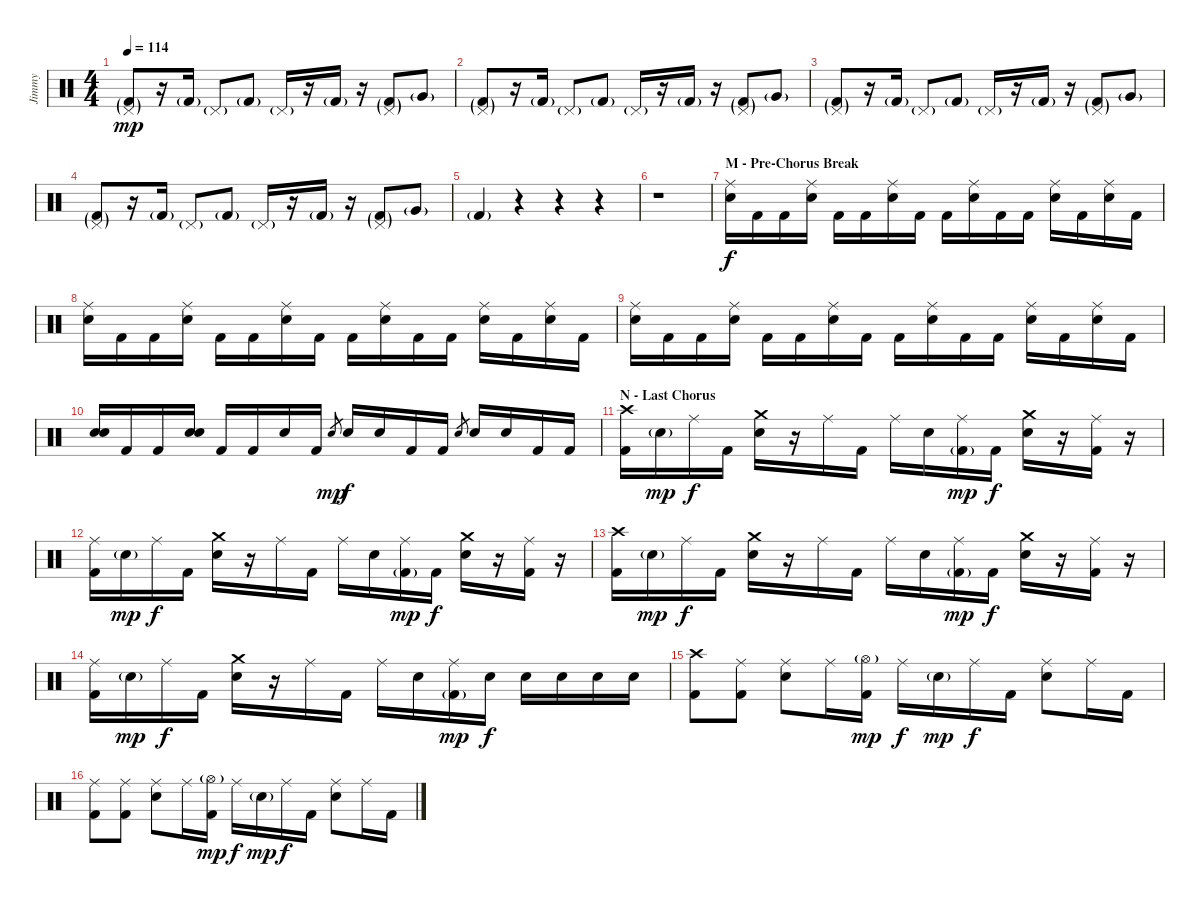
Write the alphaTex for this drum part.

\track ("Jimmy" "Jimmy") {instrument percussion}
\staff {score}
\articulation defaults
\ts (4 4)
\tempo 114
\clef neutral
\ks c
("Pedal Hi-Hat (hit)"{g} "Kick (hit) 2"{g}).8{dy mp} r.16 "Kick (hit) 2"{g}.16 "Pedal Hi-Hat (hit)"{g}.8 "Kick (hit) 2"{g}.8 "Pedal Hi-Hat (hit)"{g}.16 r.16 "Kick (hit) 2"{g}.16 r.16 ("Pedal Hi-Hat (hit)"{g} "Kick (hit) 2"{g}).8 "Very Low Tom (hit)"{g}.8 |
("Pedal Hi-Hat (hit)"{g} "Kick (hit) 2"{g}).8 r.16 "Kick (hit) 2"{g}.16 "Pedal Hi-Hat (hit)"{g}.8 "Kick (hit) 2"{g}.8 "Pedal Hi-Hat (hit)"{g}.16 r.16 "Kick (hit) 2"{g}.16 r.16 ("Pedal Hi-Hat (hit)"{g} "Kick (hit) 2"{g}).8 "Very Low Tom (hit)"{g}.8 |
("Pedal Hi-Hat (hit)"{g} "Kick (hit) 2"{g}).8 r.16 "Kick (hit) 2"{g}.16 "Pedal Hi-Hat (hit)"{g}.8 "Kick (hit) 2"{g}.8 "Pedal Hi-Hat (hit)"{g}.16 r.16 "Kick (hit) 2"{g}.16 r.16 ("Pedal Hi-Hat (hit)"{g} "Kick (hit) 2"{g}).8 "Very Low Tom (hit)"{g}.8 |
("Pedal Hi-Hat (hit)"{g} "Kick (hit) 2"{g}).8 r.16 "Kick (hit) 2"{g}.16 "Pedal Hi-Hat (hit)"{g}.8 "Kick (hit) 2"{g}.8 "Pedal Hi-Hat (hit)"{g}.16 r.16 "Kick (hit) 2"{g}.16 r.16 ("Pedal Hi-Hat (hit)"{g} "Kick (hit) 2"{g}).8 "Very Low Tom (hit)"{g}.8 |
"Kick (hit) 2"{g}.4 r.4 r.4 r.4 |
r.1 |
\section ("" "M - Pre-Chorus Break")
("Ride (middle)" "Electric Snare (hit)").16{dy f} "Kick (hit) 2".16 "Kick (hit) 2".16 ("Ride (middle)" "Electric Snare (hit)").16 "Kick (hit) 2".16 "Kick (hit) 2".16 ("Ride (middle)" "Electric Snare (hit)").16 "Kick (hit) 2".16 "Kick (hit) 2".16 ("Ride (middle)" "Electric Snare (hit)").16 "Kick (hit) 2".16 "Kick (hit) 2".16 ("Ride (middle)" "Electric Snare (hit)").16 "Kick (hit) 2".16 ("Ride (middle)" "Electric Snare (hit)").16 "Kick (hit) 2".16 |
("Ride (middle)" "Electric Snare (hit)").16 "Kick (hit) 2".16 "Kick (hit) 2".16 ("Ride (middle)" "Electric Snare (hit)").16 "Kick (hit) 2".16 "Kick (hit) 2".16 ("Ride (middle)" "Electric Snare (hit)").16 "Kick (hit) 2".16 "Kick (hit) 2".16 ("Ride (middle)" "Electric Snare (hit)").16 "Kick (hit) 2".16 "Kick (hit) 2".16 ("Ride (middle)" "Electric Snare (hit)").16 "Kick (hit) 2".16 ("Ride (middle)" "Electric Snare (hit)").16 "Kick (hit) 2".16 |
("Ride (middle)" "Electric Snare (hit)").16 "Kick (hit) 2".16 "Kick (hit) 2".16 ("Ride (middle)" "Electric Snare (hit)").16 "Kick (hit) 2".16 "Kick (hit) 2".16 ("Ride (middle)" "Electric Snare (hit)").16 "Kick (hit) 2".16 "Kick (hit) 2".16 ("Ride (middle)" "Electric Snare (hit)").16 "Kick (hit) 2".16 "Kick (hit) 2".16 ("Ride (middle)" "Electric Snare (hit)").16 "Kick (hit) 2".16 ("Ride (middle)" "Electric Snare (hit)").16 "Kick (hit) 2".16 |
("Electric Snare (hit)" "Electric Snare (hit)").16 "Kick (hit) 2".16 "Kick (hit) 2".16 ("Electric Snare (hit)" "Electric Snare (hit)").16 "Kick (hit) 2".16 "Kick (hit) 2".16 "Electric Snare (hit)".16 "Kick (hit) 2".16 "Electric Snare (hit)".8{gr dy mp} "Electric Snare (hit)".16{dy f} "Electric Snare (hit)".16 "Kick (hit) 2".16 "Kick (hit) 2".16 "Electric Snare (hit)".8{gr} "Electric Snare (hit)".16 "Electric Snare (hit)".16 "Kick (hit) 2".16 "Kick (hit) 2".16 |
\section ("" "N - Last Chorus")
("Crash high (hit)" "Kick (hit) 2").16 "Electric Snare (hit)"{g}.16{dy mp} "Ride (middle)".16{dy f} "Kick (hit) 2".16 ("Crash medium (hit)" "Electric Snare (hit)").16 r.16 "Ride (middle)".16 "Kick (hit) 2".16 "Ride (middle)".16 "Electric Snare (hit)".16 ("Ride (middle)" "Kick (hit) 2"{g}).16{dy mp} "Kick (hit) 2".16{dy f} ("Crash medium (hit)" "Electric Snare (hit)").16 r.16 ("Ride (middle)" "Kick (hit) 2").16 r.16 |
("Ride (middle)" "Kick (hit) 2").16 "Electric Snare (hit)"{g}.16{dy mp} "Ride (middle)".16{dy f} "Kick (hit) 2".16 ("Crash medium (hit)" "Electric Snare (hit)").16 r.16 "Ride (middle)".16 "Kick (hit) 2".16 "Ride (middle)".16 "Electric Snare (hit)".16 ("Ride (middle)" "Kick (hit) 2"{g}).16{dy mp} "Kick (hit) 2".16{dy f} ("Crash medium (hit)" "Electric Snare (hit)").16 r.16 ("Ride (middle)" "Kick (hit) 2").16 r.16 |
("Crash high (hit)" "Kick (hit) 2").16 "Electric Snare (hit)"{g}.16{dy mp} "Ride (middle)".16{dy f} "Kick (hit) 2".16 ("Crash medium (hit)" "Electric Snare (hit)").16 r.16 "Ride (middle)".16 "Kick (hit) 2".16 "Ride (middle)".16 "Electric Snare (hit)".16 ("Ride (middle)" "Kick (hit) 2"{g}).16{dy mp} "Kick (hit) 2".16{dy f} ("Crash medium (hit)" "Electric Snare (hit)").16 r.16 ("Ride (middle)" "Kick (hit) 2").16 r.16 |
("Ride (middle)" "Kick (hit) 2").16 "Electric Snare (hit)"{g}.16{dy mp} "Ride (middle)".16{dy f} "Kick (hit) 2".16 ("Crash medium (hit)" "Electric Snare (hit)").16 r.16 "Ride (middle)".16 "Kick (hit) 2".16 "Ride (middle)".16 "Electric Snare (hit)".16 ("Ride (middle)" "Kick (hit) 2"{g}).16{dy mp} "Electric Snare (hit)".16{dy f} "Electric Snare (hit)".16 "Electric Snare (hit)".16 "Electric Snare (hit)".16 "Electric Snare (hit)".16 |
("Crash high (hit)" "Kick (hit) 2").8 ("Ride (middle)" "Kick (hit) 2").8 ("Ride (middle)" "Electric Snare (hit)").8 "Ride (middle)".16 ("Hi-Hat (open)"{g} "Kick (hit) 2").16{dy mp} "Ride (middle)".16{dy f} "Electric Snare (hit)"{g}.16{dy mp} "Ride (middle)".16{dy f} "Kick (hit) 2".16 ("Ride (middle)" "Electric Snare (hit)").8 "Ride (middle)".16 "Kick (hit) 2".16 |
("Ride (middle)" "Kick (hit) 2").8 ("Ride (middle)" "Kick (hit) 2").8 ("Ride (middle)" "Electric Snare (hit)").8 "Ride (middle)".16 ("Hi-Hat (open)"{g} "Kick (hit) 2").16{dy mp} "Ride (middle)".16{dy f} "Electric Snare (hit)"{g}.16{dy mp} "Ride (middle)".16{dy f} "Kick (hit) 2".16 ("Ride (middle)" "Electric Snare (hit)").8 "Ride (middle)".16 "Kick (hit) 2".16
